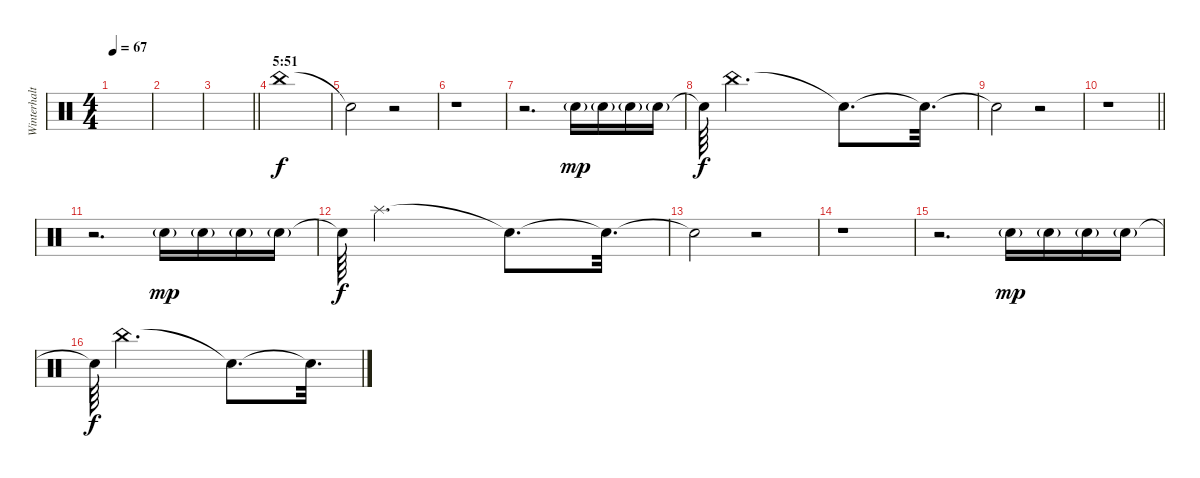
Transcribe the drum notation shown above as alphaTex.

\track ("Winterhalten" "Winterhalt") {instrument percussion}
\staff {score}
\articulation defaults
\ts (4 4)
\tempo 67
\clef neutral
\ks c
|
|
\barLineRight lightlight
|
\section ("" "5:51")
"China (hit)".1 |
"Snare (hit)"{t}.2 r.2 |
r.1 |
r.2{d} "Snare (hit) 2"{g}.16{dy mp} "Snare (hit) 2"{g}.16 "Snare (hit) 2"{g}.16 "Snare (hit) 2"{g}.16 |
"Snare (hit)"{t}.64{dy f} "China (hit)".2{d} "Snare (hit)"{t}.8{d} "Snare (hit)"{t}.32{d} |
"Snare (hit)"{t}.2 r.2 |
\barLineRight lightlight
r.1 |
\section ("" "")
r.2{d} "Snare (hit) 2"{g}.16{dy mp} "Snare (hit) 2"{g}.16 "Snare (hit) 2"{g}.16 "Snare (hit) 2"{g}.16 |
"Snare (hit)"{t}.64{dy f} "Splash (hit)".2{d} "Snare (hit)"{t}.8{d} "Snare (hit)"{t}.32{d} |
"Snare (hit)"{t}.2 r.2 |
r.1 |
r.2{d} "Snare (hit) 2"{g}.16{dy mp} "Snare (hit) 2"{g}.16 "Snare (hit) 2"{g}.16 "Snare (hit) 2"{g}.16 |
"Snare (hit)"{t}.64{dy f} "China (hit)".2{d} "Snare (hit)"{t}.8{d} "Snare (hit)"{t}.32{d}
